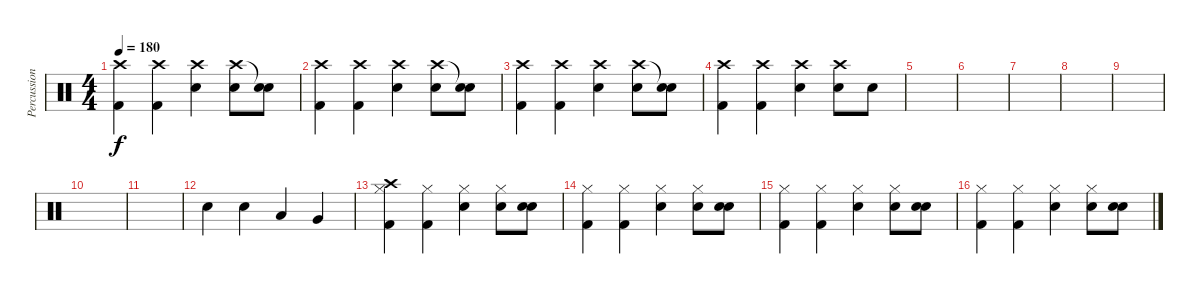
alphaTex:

\track ("Percussion" "Percussion") {instrument percussion}
\staff {score}
\articulation defaults
\ts (4 4)
\tempo 180
\clef neutral
\ks c
("Crash high (hit)" "Kick (hit) 2").4{dy f} ("Crash high (hit)" "Kick (hit) 2").4 ("Crash high (hit)" "Electric Snare (hit)").4 ("Crash high (hit)" "Snare (hit)").8 ("Snare (hit)"{t} "Electric Snare (hit)").8 |
("Crash high (hit)" "Kick (hit) 2").4 ("Crash high (hit)" "Kick (hit) 2").4 ("Crash high (hit)" "Electric Snare (hit)").4 ("Crash high (hit)" "Snare (hit)").8 ("Snare (hit)"{t} "Electric Snare (hit)").8 |
("Crash high (hit)" "Kick (hit) 2").4 ("Crash high (hit)" "Kick (hit) 2").4 ("Crash high (hit)" "Electric Snare (hit)").4 ("Crash high (hit)" "Snare (hit)").8 ("Snare (hit)"{t} "Electric Snare (hit)").8 |
("Crash high (hit)" "Kick (hit) 2").4 ("Crash high (hit)" "Kick (hit) 2").4 ("Crash high (hit)" "Electric Snare (hit)").4 ("Crash high (hit)" "Snare (hit)").8 "Snare (hit)".8 |
|
|
|
|
|
|
|
"Snare (hit)".4 "Electric Snare (hit)".4 "Low Tom (hit)".4 "Very Low Tom (hit)".4 |
("Crash high (hit)" "Hi-Hat (closed)" "Kick (hit) 2").4 ("Hi-Hat (closed)" "Kick (hit) 2").4 ("Hi-Hat (closed)" "Electric Snare (hit)").4 ("Hi-Hat (closed)" "Snare (hit)").8 ("Snare (hit)" "Electric Snare (hit)").8 |
("Hi-Hat (closed)" "Kick (hit) 2").4 ("Hi-Hat (closed)" "Kick (hit) 2").4 ("Hi-Hat (closed)" "Electric Snare (hit)").4 ("Hi-Hat (closed)" "Snare (hit)").8 ("Snare (hit)" "Electric Snare (hit)").8 |
("Hi-Hat (closed)" "Kick (hit) 2").4 ("Hi-Hat (closed)" "Kick (hit) 2").4 ("Hi-Hat (closed)" "Electric Snare (hit)").4 ("Hi-Hat (closed)" "Snare (hit)").8 ("Snare (hit)" "Electric Snare (hit)").8 |
("Hi-Hat (closed)" "Kick (hit) 2").4 ("Hi-Hat (closed)" "Kick (hit) 2").4 ("Hi-Hat (closed)" "Electric Snare (hit)").4 ("Hi-Hat (closed)" "Snare (hit)").8 ("Snare (hit)" "Electric Snare (hit)").8
